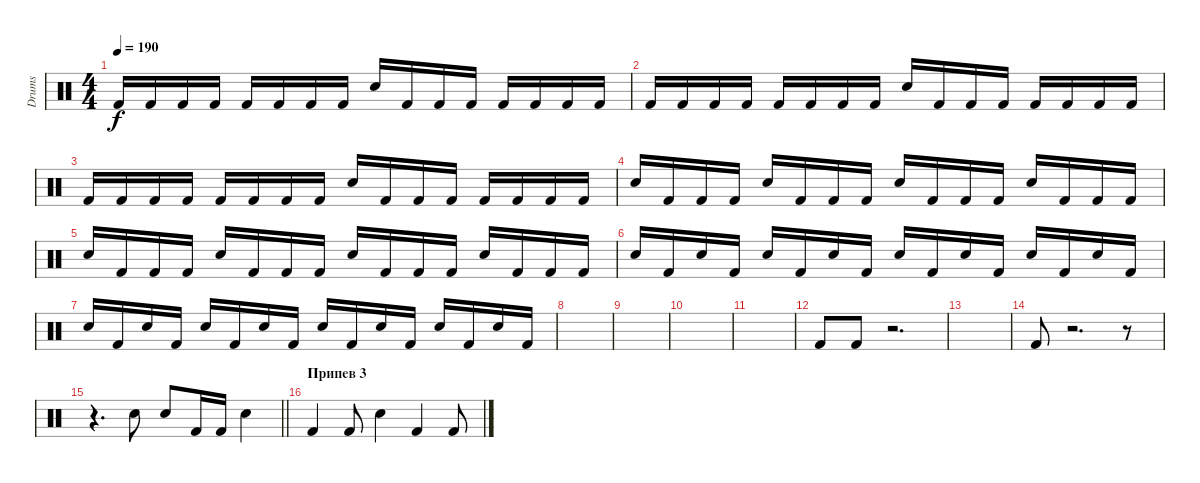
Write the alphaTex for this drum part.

\track ("Drums" "Drums") {instrument percussion}
\staff {score}
\articulation defaults
\ts (4 4)
\tempo 190
\clef neutral
\ks c "Kick (hit) 2".16{dy f} "Kick (hit) 2".16 "Kick (hit) 2".16 "Kick (hit) 2".16 "Kick (hit) 2".16 "Kick (hit) 2".16 "Kick (hit) 2".16 "Kick (hit) 2".16 "Snare (hit) 2".16 "Kick (hit) 2".16 "Kick (hit) 2".16 "Kick (hit) 2".16 "Kick (hit) 2".16 "Kick (hit) 2".16 "Kick (hit) 2".16 "Kick (hit) 2".16
|
"Kick (hit) 2".16 "Kick (hit) 2".16 "Kick (hit) 2".16 "Kick (hit) 2".16 "Kick (hit) 2".16 "Kick (hit) 2".16 "Kick (hit) 2".16 "Kick (hit) 2".16 "Snare (hit) 2".16 "Kick (hit) 2".16 "Kick (hit) 2".16 "Kick (hit) 2".16 "Kick (hit) 2".16 "Kick (hit) 2".16 "Kick (hit) 2".16 "Kick (hit) 2".16 |
"Kick (hit) 2".16 "Kick (hit) 2".16 "Kick (hit) 2".16 "Kick (hit) 2".16 "Kick (hit) 2".16 "Kick (hit) 2".16 "Kick (hit) 2".16 "Kick (hit) 2".16 "Snare (hit) 2".16 "Kick (hit) 2".16 "Kick (hit) 2".16 "Kick (hit) 2".16 "Kick (hit) 2".16 "Kick (hit) 2".16 "Kick (hit) 2".16 "Kick (hit) 2".16 |
"Snare (hit) 2".16 "Kick (hit) 2".16 "Kick (hit) 2".16 "Kick (hit) 2".16 "Snare (hit) 2".16 "Kick (hit) 2".16 "Kick (hit) 2".16 "Kick (hit) 2".16 "Snare (hit) 2".16 "Kick (hit) 2".16 "Kick (hit) 2".16 "Kick (hit) 2".16 "Snare (hit) 2".16 "Kick (hit) 2".16 "Kick (hit) 2".16 "Kick (hit) 2".16 |
"Snare (hit) 2".16 "Kick (hit) 2".16 "Kick (hit) 2".16 "Kick (hit) 2".16 "Snare (hit) 2".16 "Kick (hit) 2".16 "Kick (hit) 2".16 "Kick (hit) 2".16 "Snare (hit) 2".16 "Kick (hit) 2".16 "Kick (hit) 2".16 "Kick (hit) 2".16 "Snare (hit) 2".16 "Kick (hit) 2".16 "Kick (hit) 2".16 "Kick (hit) 2".16 |
"Snare (hit) 2".16 "Kick (hit) 2".16 "Snare (hit) 2".16 "Kick (hit) 2".16 "Snare (hit) 2".16 "Kick (hit) 2".16 "Snare (hit) 2".16 "Kick (hit) 2".16 "Snare (hit) 2".16 "Kick (hit) 2".16 "Snare (hit) 2".16 "Kick (hit) 2".16 "Snare (hit) 2".16 "Kick (hit) 2".16 "Snare (hit) 2".16 "Kick (hit) 2".16 |
"Snare (hit) 2".16 "Kick (hit) 2".16 "Snare (hit) 2".16 "Kick (hit) 2".16 "Snare (hit) 2".16 "Kick (hit) 2".16 "Snare (hit) 2".16 "Kick (hit) 2".16 "Snare (hit) 2".16 "Kick (hit) 2".16 "Snare (hit) 2".16 "Kick (hit) 2".16 "Snare (hit) 2".16 "Kick (hit) 2".16 "Snare (hit) 2".16 "Kick (hit) 2".16 |
|
|
|
|
"Kick (hit) 2".8 "Kick (hit) 2".8 r.2{d} |
|
"Kick (hit) 2".8 r.2{d} r.8 |
\barLineRight lightlight
r.4{d} "Snare (hit) 2".8 "Snare (hit) 2".8 "Kick (hit) 2".16 "Kick (hit) 2".16 "Snare (hit) 2".4 |
\section ("" "Припев 3")
"Kick (hit) 2".4 "Kick (hit) 2".8 "Snare (hit) 2".4 "Kick (hit) 2".4 "Kick (hit) 2".8
